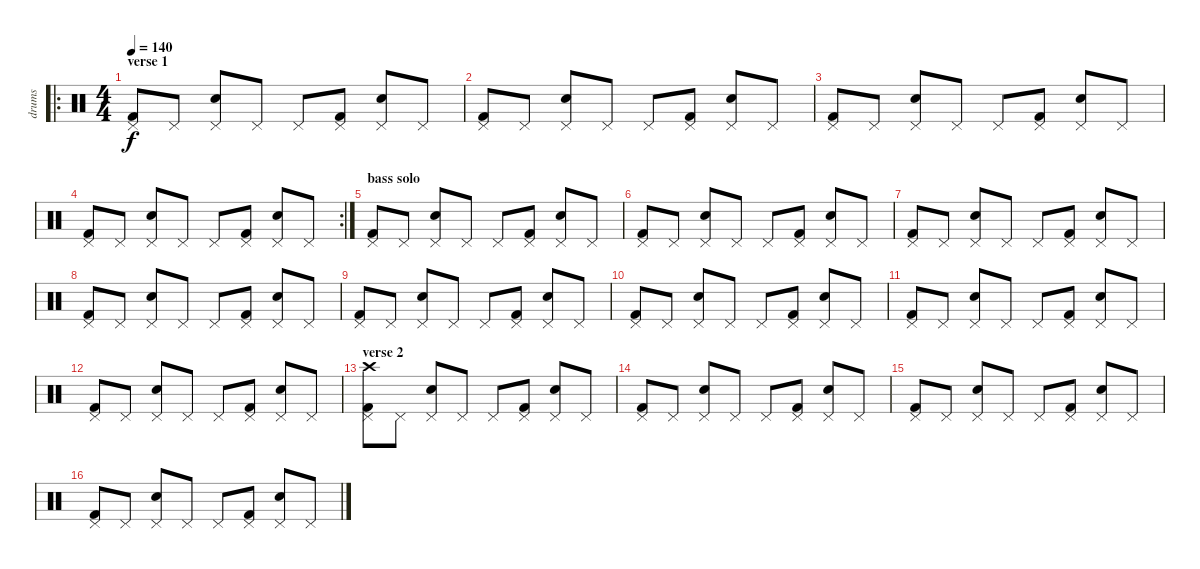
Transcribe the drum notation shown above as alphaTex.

\track ("drums" "drums") {instrument percussion}
\staff {score}
\articulation defaults
\ro
\ts (4 4)
\section ("" "verse 1")
\tempo 140
\clef neutral
\ks c
("Kick (hit) 2" "Pedal Hi-Hat (hit)").8{dy f} "Pedal Hi-Hat (hit)".8 ("Snare (hit) 2" "Pedal Hi-Hat (hit)").8 "Pedal Hi-Hat (hit)".8 "Pedal Hi-Hat (hit)".8 ("Kick (hit) 2" "Pedal Hi-Hat (hit)").8 ("Snare (hit) 2" "Pedal Hi-Hat (hit)").8 "Pedal Hi-Hat (hit)".8 |
("Kick (hit) 2" "Pedal Hi-Hat (hit)").8 "Pedal Hi-Hat (hit)".8 ("Snare (hit) 2" "Pedal Hi-Hat (hit)").8 "Pedal Hi-Hat (hit)".8 "Pedal Hi-Hat (hit)".8 ("Kick (hit) 2" "Pedal Hi-Hat (hit)").8 ("Snare (hit) 2" "Pedal Hi-Hat (hit)").8 "Pedal Hi-Hat (hit)".8 |
("Kick (hit) 2" "Pedal Hi-Hat (hit)").8 "Pedal Hi-Hat (hit)".8 ("Snare (hit) 2" "Pedal Hi-Hat (hit)").8 "Pedal Hi-Hat (hit)".8 "Pedal Hi-Hat (hit)".8 ("Kick (hit) 2" "Pedal Hi-Hat (hit)").8 ("Snare (hit) 2" "Pedal Hi-Hat (hit)").8 "Pedal Hi-Hat (hit)".8 |
\rc 2
("Kick (hit) 2" "Pedal Hi-Hat (hit)").8 "Pedal Hi-Hat (hit)".8 ("Snare (hit) 2" "Pedal Hi-Hat (hit)").8 "Pedal Hi-Hat (hit)".8 "Pedal Hi-Hat (hit)".8 ("Kick (hit) 2" "Pedal Hi-Hat (hit)").8 ("Snare (hit) 2" "Pedal Hi-Hat (hit)").8 "Pedal Hi-Hat (hit)".8 |
\section ("" "bass solo")
("Kick (hit) 2" "Pedal Hi-Hat (hit)").8 "Pedal Hi-Hat (hit)".8 ("Snare (hit) 2" "Pedal Hi-Hat (hit)").8 "Pedal Hi-Hat (hit)".8 "Pedal Hi-Hat (hit)".8 ("Kick (hit) 2" "Pedal Hi-Hat (hit)").8 ("Snare (hit) 2" "Pedal Hi-Hat (hit)").8 "Pedal Hi-Hat (hit)".8 |
("Kick (hit) 2" "Pedal Hi-Hat (hit)").8 "Pedal Hi-Hat (hit)".8 ("Snare (hit) 2" "Pedal Hi-Hat (hit)").8 "Pedal Hi-Hat (hit)".8 "Pedal Hi-Hat (hit)".8 ("Kick (hit) 2" "Pedal Hi-Hat (hit)").8 ("Snare (hit) 2" "Pedal Hi-Hat (hit)").8 "Pedal Hi-Hat (hit)".8 |
("Kick (hit) 2" "Pedal Hi-Hat (hit)").8 "Pedal Hi-Hat (hit)".8 ("Snare (hit) 2" "Pedal Hi-Hat (hit)").8 "Pedal Hi-Hat (hit)".8 "Pedal Hi-Hat (hit)".8 ("Kick (hit) 2" "Pedal Hi-Hat (hit)").8 ("Snare (hit) 2" "Pedal Hi-Hat (hit)").8 "Pedal Hi-Hat (hit)".8 |
("Kick (hit) 2" "Pedal Hi-Hat (hit)").8 "Pedal Hi-Hat (hit)".8 ("Snare (hit) 2" "Pedal Hi-Hat (hit)").8 "Pedal Hi-Hat (hit)".8 "Pedal Hi-Hat (hit)".8 ("Kick (hit) 2" "Pedal Hi-Hat (hit)").8 ("Snare (hit) 2" "Pedal Hi-Hat (hit)").8 "Pedal Hi-Hat (hit)".8 |
("Kick (hit) 2" "Pedal Hi-Hat (hit)").8 "Pedal Hi-Hat (hit)".8 ("Snare (hit) 2" "Pedal Hi-Hat (hit)").8 "Pedal Hi-Hat (hit)".8 "Pedal Hi-Hat (hit)".8 ("Kick (hit) 2" "Pedal Hi-Hat (hit)").8 ("Snare (hit) 2" "Pedal Hi-Hat (hit)").8 "Pedal Hi-Hat (hit)".8 |
("Kick (hit) 2" "Pedal Hi-Hat (hit)").8 "Pedal Hi-Hat (hit)".8 ("Snare (hit) 2" "Pedal Hi-Hat (hit)").8 "Pedal Hi-Hat (hit)".8 "Pedal Hi-Hat (hit)".8 ("Kick (hit) 2" "Pedal Hi-Hat (hit)").8 ("Snare (hit) 2" "Pedal Hi-Hat (hit)").8 "Pedal Hi-Hat (hit)".8 |
("Kick (hit) 2" "Pedal Hi-Hat (hit)").8 "Pedal Hi-Hat (hit)".8 ("Snare (hit) 2" "Pedal Hi-Hat (hit)").8 "Pedal Hi-Hat (hit)".8 "Pedal Hi-Hat (hit)".8 ("Kick (hit) 2" "Pedal Hi-Hat (hit)").8 ("Snare (hit) 2" "Pedal Hi-Hat (hit)").8 "Pedal Hi-Hat (hit)".8 |
("Kick (hit) 2" "Pedal Hi-Hat (hit)").8 "Pedal Hi-Hat (hit)".8 ("Snare (hit) 2" "Pedal Hi-Hat (hit)").8 "Pedal Hi-Hat (hit)".8 "Pedal Hi-Hat (hit)".8 ("Kick (hit) 2" "Pedal Hi-Hat (hit)").8 ("Snare (hit) 2" "Pedal Hi-Hat (hit)").8 "Pedal Hi-Hat (hit)".8 |
\section ("" "verse 2")
("Kick (hit) 2" "Pedal Hi-Hat (hit)" "Crash high (hit)").8 "Pedal Hi-Hat (hit)".8 ("Snare (hit) 2" "Pedal Hi-Hat (hit)").8 "Pedal Hi-Hat (hit)".8 "Pedal Hi-Hat (hit)".8 ("Kick (hit) 2" "Pedal Hi-Hat (hit)").8 ("Snare (hit) 2" "Pedal Hi-Hat (hit)").8 "Pedal Hi-Hat (hit)".8 |
("Kick (hit) 2" "Pedal Hi-Hat (hit)").8 "Pedal Hi-Hat (hit)".8 ("Snare (hit) 2" "Pedal Hi-Hat (hit)").8 "Pedal Hi-Hat (hit)".8 "Pedal Hi-Hat (hit)".8 ("Kick (hit) 2" "Pedal Hi-Hat (hit)").8 ("Snare (hit) 2" "Pedal Hi-Hat (hit)").8 "Pedal Hi-Hat (hit)".8 |
("Kick (hit) 2" "Pedal Hi-Hat (hit)").8 "Pedal Hi-Hat (hit)".8 ("Snare (hit) 2" "Pedal Hi-Hat (hit)").8 "Pedal Hi-Hat (hit)".8 "Pedal Hi-Hat (hit)".8 ("Kick (hit) 2" "Pedal Hi-Hat (hit)").8 ("Snare (hit) 2" "Pedal Hi-Hat (hit)").8 "Pedal Hi-Hat (hit)".8 |
("Kick (hit) 2" "Pedal Hi-Hat (hit)").8 "Pedal Hi-Hat (hit)".8 ("Snare (hit) 2" "Pedal Hi-Hat (hit)").8 "Pedal Hi-Hat (hit)".8 "Pedal Hi-Hat (hit)".8 ("Kick (hit) 2" "Pedal Hi-Hat (hit)").8 ("Snare (hit) 2" "Pedal Hi-Hat (hit)").8 "Pedal Hi-Hat (hit)".8
